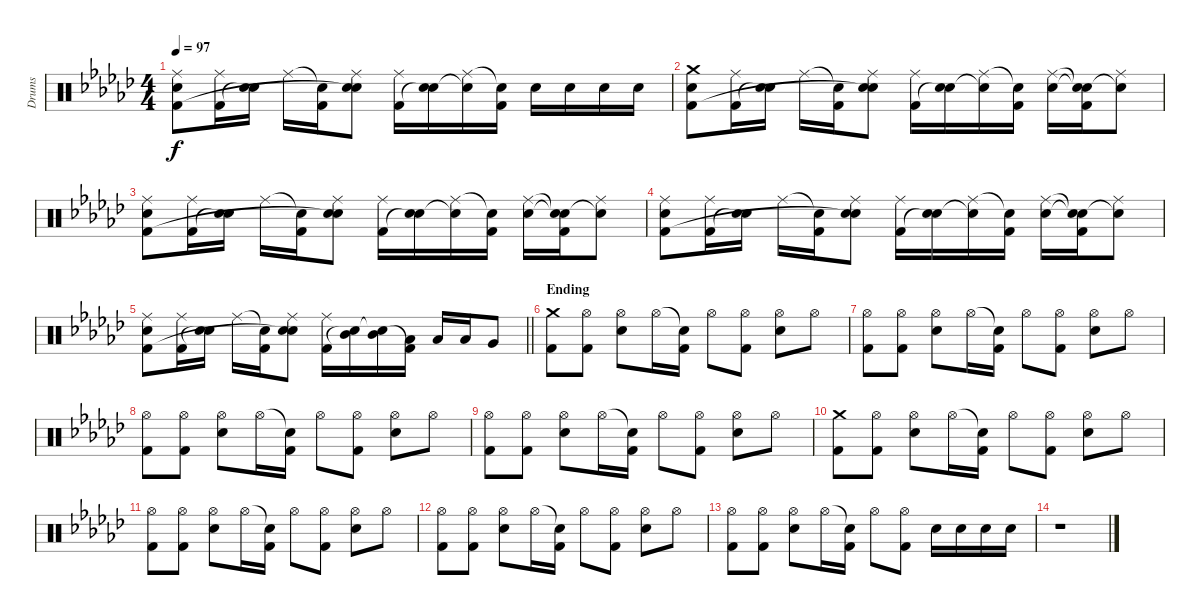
\track ("Drums" "Drums") {instrument percussion}
\staff {score}
\articulation defaults
\ts (4 4)
\tempo 97
\clef neutral
\ks ebminor
("Ride (middle)" "Electric Snare (hit)" "Kick (hit) 2").8{dy f} ("Ride (middle)" "Kick (hit) 2").16 ("Electric Snare (hit)" "Snare (hit)"{t}).16 "Ride (middle)".16 ("Snare (hit)"{t} "Kick (hit) 2").16 ("Ride (middle)" "Electric Snare (hit)" "Snare (hit)"{t}).8 ("Ride (middle)" "Kick (hit) 2").16 ("Electric Snare (hit)" "Snare (hit)"{t}).16 ("Ride (middle)" "Snare (hit)"{t}).16 ("Snare (hit)"{t} "Kick (hit) 2").16 "Electric Snare (hit)".16 "Electric Snare (hit)".16 "Electric Snare (hit)".16 "Electric Snare (hit)".16 |
("Crash medium (hit)" "Electric Snare (hit)" "Kick (hit) 2").8 ("Ride (middle)" "Kick (hit) 2").16 ("Electric Snare (hit)" "Snare (hit)"{t}).16 "Ride (middle)".16 ("Snare (hit)"{t} "Kick (hit) 2").16 ("Ride (middle)" "Electric Snare (hit)" "Snare (hit)"{t}).8 ("Ride (middle)" "Kick (hit) 2").16 ("Electric Snare (hit)" "Snare (hit)"{t}).16 ("Ride (middle)" "Snare (hit)"{t}).16 ("Snare (hit)"{t} "Kick (hit) 2").16 ("Ride (middle)" "Electric Snare (hit)").16 ("Snare (hit)"{t} "Snare (hit)"{t} "Kick (hit) 2").16 ("Ride (middle)" "Snare (hit)"{t}).8 |
("Ride (middle)" "Electric Snare (hit)" "Kick (hit) 2").8 ("Ride (middle)" "Kick (hit) 2").16 ("Electric Snare (hit)" "Snare (hit)"{t}).16 "Ride (middle)".16 ("Snare (hit)"{t} "Kick (hit) 2").16 ("Ride (middle)" "Electric Snare (hit)" "Snare (hit)"{t}).8 ("Ride (middle)" "Kick (hit) 2").16 ("Electric Snare (hit)" "Snare (hit)"{t}).16 ("Ride (middle)" "Snare (hit)"{t}).16 ("Snare (hit)"{t} "Kick (hit) 2").16 ("Ride (middle)" "Electric Snare (hit)").16 ("Snare (hit)"{t} "Snare (hit)"{t} "Kick (hit) 2").16 ("Ride (middle)" "Snare (hit)"{t}).8 |
("Ride (middle)" "Electric Snare (hit)" "Kick (hit) 2").8 ("Ride (middle)" "Kick (hit) 2").16 ("Electric Snare (hit)" "Snare (hit)"{t}).16 "Ride (middle)".16 ("Snare (hit)"{t} "Kick (hit) 2").16 ("Ride (middle)" "Electric Snare (hit)" "Snare (hit)"{t}).8 ("Ride (middle)" "Kick (hit) 2").16 ("Electric Snare (hit)" "Snare (hit)"{t}).16 ("Ride (middle)" "Snare (hit)"{t}).16 ("Snare (hit)"{t} "Kick (hit) 2").16 ("Ride (middle)" "Electric Snare (hit)").16 ("Snare (hit)"{t} "Snare (hit)"{t} "Kick (hit) 2").16 ("Ride (middle)" "Snare (hit)"{t}).8 |
\barLineRight lightlight
("Ride (middle)" "Electric Snare (hit)" "Kick (hit) 2").8 ("Ride (middle)" "Kick (hit) 2").16 ("Electric Snare (hit)" "Snare (hit)"{t}).16 "Ride (middle)".16 ("Snare (hit)"{t} "Kick (hit) 2").16 ("Ride (middle)" "Electric Snare (hit)" "Snare (hit)"{t}).8 ("Ride (middle)" "Kick (hit) 2").16 ("Mid Tom (hit)" "Snare (hit)"{t}).16 ("Mid Tom (hit)" "Snare (hit)"{t}).16 ("Low Tom (hit)" "Kick (hit) 2"{t}).16 "Low Tom (hit)".16 "Low Tom (hit)".16 "Very Low Tom (hit)".8 |
\section ("" "Ending")
("Crash medium (hit)" "Kick (hit) 2").8 ("Hi-Hat (open)" "Kick (hit) 2").8 ("Hi-Hat (open)" "Electric Snare (hit)").8 "Hi-Hat (open)".16 ("Snare (hit)"{t} "Kick (hit) 2").16 "Hi-Hat (open)".8 ("Hi-Hat (open)" "Kick (hit) 2").8 ("Hi-Hat (open)" "Electric Snare (hit)").8 "Hi-Hat (open)".8 |
("Hi-Hat (open)" "Kick (hit) 2").8 ("Hi-Hat (open)" "Kick (hit) 2").8 ("Hi-Hat (open)" "Electric Snare (hit)").8 "Hi-Hat (open)".16 ("Snare (hit)"{t} "Kick (hit) 2").16 "Hi-Hat (open)".8 ("Hi-Hat (open)" "Kick (hit) 2").8 ("Hi-Hat (open)" "Electric Snare (hit)").8 "Hi-Hat (open)".8 |
("Hi-Hat (open)" "Kick (hit) 2").8 ("Hi-Hat (open)" "Kick (hit) 2").8 ("Hi-Hat (open)" "Electric Snare (hit)").8 "Hi-Hat (open)".16 ("Snare (hit)"{t} "Kick (hit) 2").16 "Hi-Hat (open)".8 ("Hi-Hat (open)" "Kick (hit) 2").8 ("Hi-Hat (open)" "Electric Snare (hit)").8 "Hi-Hat (open)".8 |
("Hi-Hat (open)" "Kick (hit) 2").8 ("Hi-Hat (open)" "Kick (hit) 2").8 ("Hi-Hat (open)" "Electric Snare (hit)").8 "Hi-Hat (open)".16 ("Snare (hit)"{t} "Kick (hit) 2").16 "Hi-Hat (open)".8 ("Hi-Hat (open)" "Kick (hit) 2").8 ("Hi-Hat (open)" "Electric Snare (hit)").8 "Hi-Hat (open)".8 |
("Crash medium (hit)" "Kick (hit) 2").8 ("Hi-Hat (open)" "Kick (hit) 2").8 ("Hi-Hat (open)" "Electric Snare (hit)").8 "Hi-Hat (open)".16 ("Snare (hit)"{t} "Kick (hit) 2").16 "Hi-Hat (open)".8 ("Hi-Hat (open)" "Kick (hit) 2").8 ("Hi-Hat (open)" "Electric Snare (hit)").8 "Hi-Hat (open)".8 |
("Hi-Hat (open)" "Kick (hit) 2").8 ("Hi-Hat (open)" "Kick (hit) 2").8 ("Hi-Hat (open)" "Electric Snare (hit)").8 "Hi-Hat (open)".16 ("Snare (hit)"{t} "Kick (hit) 2").16 "Hi-Hat (open)".8 ("Hi-Hat (open)" "Kick (hit) 2").8 ("Hi-Hat (open)" "Electric Snare (hit)").8 "Hi-Hat (open)".8 |
("Hi-Hat (open)" "Kick (hit) 2").8 ("Hi-Hat (open)" "Kick (hit) 2").8 ("Hi-Hat (open)" "Electric Snare (hit)").8 "Hi-Hat (open)".16 ("Snare (hit)"{t} "Kick (hit) 2").16 "Hi-Hat (open)".8 ("Hi-Hat (open)" "Kick (hit) 2").8 ("Hi-Hat (open)" "Electric Snare (hit)").8 "Hi-Hat (open)".8 |
("Hi-Hat (open)" "Kick (hit) 2").8 ("Hi-Hat (open)" "Kick (hit) 2").8 ("Hi-Hat (open)" "Electric Snare (hit)").8 "Hi-Hat (open)".16 ("Snare (hit)"{t} "Kick (hit) 2").16 "Hi-Hat (open)".8 ("Hi-Hat (open)" "Kick (hit) 2").8 "Electric Snare (hit)".16 "Electric Snare (hit)".16 "Electric Snare (hit)".16 "Electric Snare (hit)".16 |
r.1
